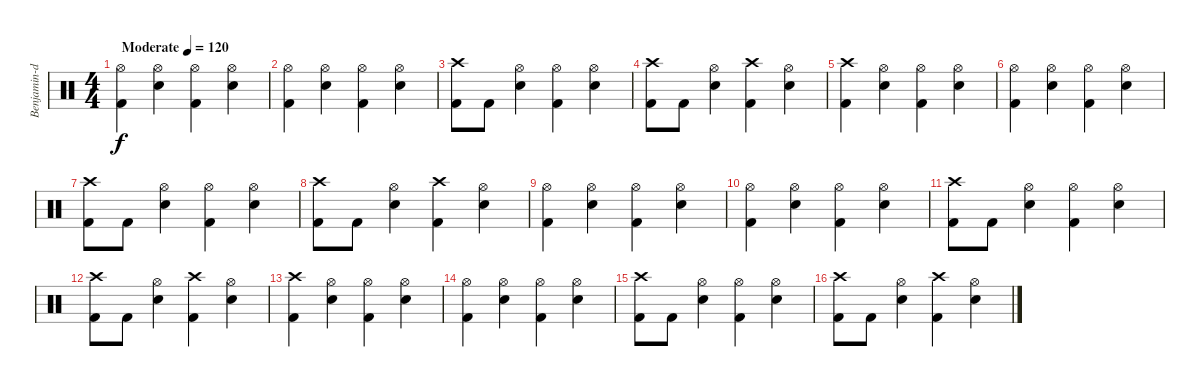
\track ("Benjamin-drums" "Benjamin-d") {instrument percussion}
\staff {score}
\articulation defaults
\ts (4 4)
\tempo (120 "Moderate")
\clef neutral
\ks c
("Hi-Hat (open)" "Kick (hit) 2").4{dy f} ("Hi-Hat (open)" "Snare (hit) 2").4 ("Hi-Hat (open)" "Kick (hit) 2").4 ("Hi-Hat (open)" "Snare (hit) 2").4 |
("Hi-Hat (open)" "Kick (hit) 2").4 ("Hi-Hat (open)" "Snare (hit) 2").4 ("Hi-Hat (open)" "Kick (hit) 2").4 ("Hi-Hat (open)" "Snare (hit) 2").4 |
("Crash high (hit)" "Kick (hit) 2").8 "Kick (hit) 2".8 ("Hi-Hat (open)" "Snare (hit) 2").4 ("Hi-Hat (open)" "Kick (hit) 2").4 ("Hi-Hat (open)" "Snare (hit) 2").4 |
("Crash high (hit)" "Kick (hit) 2").8 "Kick (hit) 2".8 ("Hi-Hat (open)" "Snare (hit) 2").4 ("Crash high (hit)" "Kick (hit) 2").4 ("Hi-Hat (open)" "Snare (hit) 2").4 |
("Crash high (hit)" "Kick (hit) 2").4 ("Hi-Hat (open)" "Snare (hit) 2").4 ("Hi-Hat (open)" "Kick (hit) 2").4 ("Hi-Hat (open)" "Snare (hit) 2").4 |
("Hi-Hat (open)" "Kick (hit) 2").4 ("Hi-Hat (open)" "Snare (hit) 2").4 ("Hi-Hat (open)" "Kick (hit) 2").4 ("Hi-Hat (open)" "Snare (hit) 2").4 |
("Crash high (hit)" "Kick (hit) 2").8 "Kick (hit) 2".8 ("Hi-Hat (open)" "Snare (hit) 2").4 ("Hi-Hat (open)" "Kick (hit) 2").4 ("Hi-Hat (open)" "Snare (hit) 2").4 |
("Crash high (hit)" "Kick (hit) 2").8 "Kick (hit) 2".8 ("Hi-Hat (open)" "Snare (hit) 2").4 ("Crash high (hit)" "Kick (hit) 2").4 ("Hi-Hat (open)" "Snare (hit) 2").4 |
("Hi-Hat (open)" "Kick (hit) 2").4 ("Hi-Hat (open)" "Snare (hit) 2").4 ("Hi-Hat (open)" "Kick (hit) 2").4 ("Hi-Hat (open)" "Snare (hit) 2").4 |
("Hi-Hat (open)" "Kick (hit) 2").4 ("Hi-Hat (open)" "Snare (hit) 2").4 ("Hi-Hat (open)" "Kick (hit) 2").4 ("Hi-Hat (open)" "Snare (hit) 2").4 |
("Crash high (hit)" "Kick (hit) 2").8 "Kick (hit) 2".8 ("Hi-Hat (open)" "Snare (hit) 2").4 ("Hi-Hat (open)" "Kick (hit) 2").4 ("Hi-Hat (open)" "Snare (hit) 2").4 |
("Crash high (hit)" "Kick (hit) 2").8 "Kick (hit) 2".8 ("Hi-Hat (open)" "Snare (hit) 2").4 ("Crash high (hit)" "Kick (hit) 2").4 ("Hi-Hat (open)" "Snare (hit) 2").4 |
("Crash high (hit)" "Kick (hit) 2").4 ("Hi-Hat (open)" "Snare (hit) 2").4 ("Hi-Hat (open)" "Kick (hit) 2").4 ("Hi-Hat (open)" "Snare (hit) 2").4 |
("Hi-Hat (open)" "Kick (hit) 2").4 ("Hi-Hat (open)" "Snare (hit) 2").4 ("Hi-Hat (open)" "Kick (hit) 2").4 ("Hi-Hat (open)" "Snare (hit) 2").4 |
("Crash high (hit)" "Kick (hit) 2").8 "Kick (hit) 2".8 ("Hi-Hat (open)" "Snare (hit) 2").4 ("Hi-Hat (open)" "Kick (hit) 2").4 ("Hi-Hat (open)" "Snare (hit) 2").4 |
("Crash high (hit)" "Kick (hit) 2").8 "Kick (hit) 2".8 ("Hi-Hat (open)" "Snare (hit) 2").4 ("Crash high (hit)" "Kick (hit) 2").4 ("Hi-Hat (open)" "Snare (hit) 2").4
